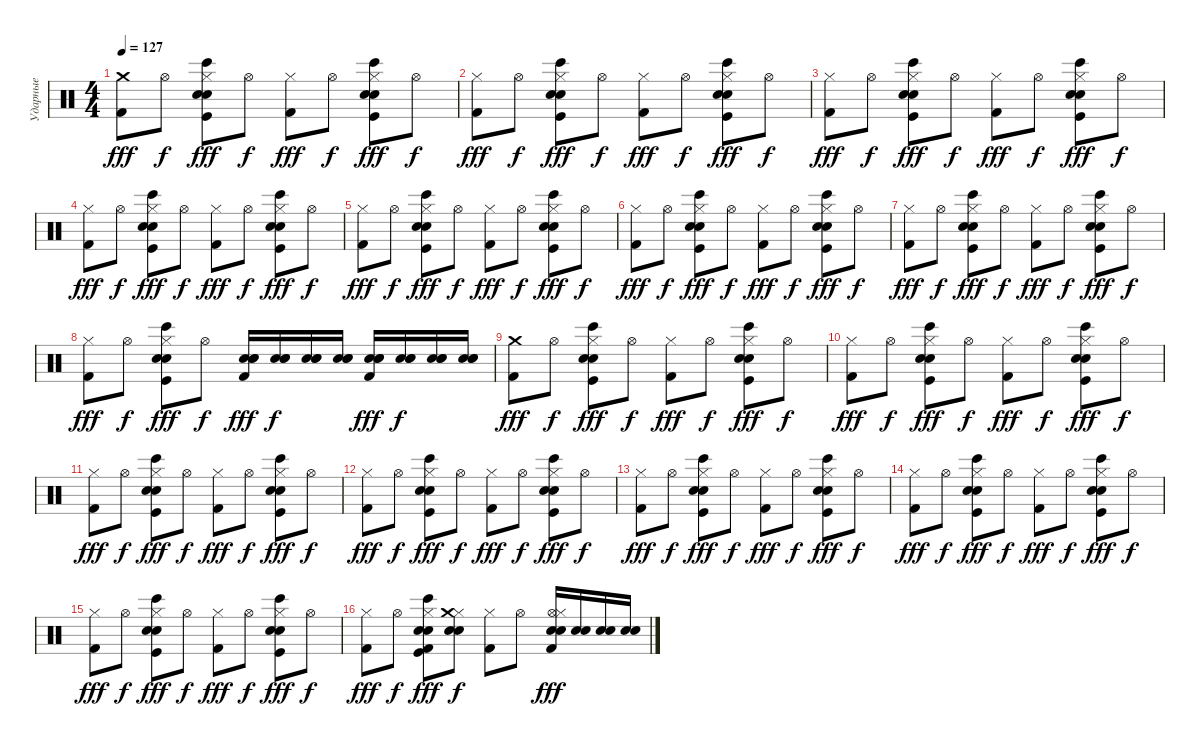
\track ("Ударные" "Ударные") {instrument percussion}
\staff {score}
\articulation defaults
\ts (4 4)
\tempo 127
\clef neutral
\ks c
("Kick (hit) 2" "Crash medium (hit)").8{dy fff} "Hi-Hat (open)".8{dy f} ("Hi-Hat (closed)" "Hand Clap (hit)" "Kick (hit)" "Snare (hit) 2" "Bongo High (hit)").8{dy fff} "Hi-Hat (open)".8{dy f} ("Kick (hit) 2" "Hi-Hat (closed)").8{dy fff} "Hi-Hat (open)".8{dy f} ("Hi-Hat (closed)" "Hand Clap (hit)" "Kick (hit)" "Snare (hit) 2" "Bongo High (hit)").8{dy fff} "Hi-Hat (open)".8{dy f} |
("Kick (hit) 2" "Hi-Hat (closed)").8{dy fff} "Hi-Hat (open)".8{dy f} ("Hi-Hat (closed)" "Hand Clap (hit)" "Kick (hit)" "Snare (hit) 2" "Bongo High (hit)").8{dy fff} "Hi-Hat (open)".8{dy f} ("Kick (hit) 2" "Hi-Hat (closed)").8{dy fff} "Hi-Hat (open)".8{dy f} ("Hi-Hat (closed)" "Hand Clap (hit)" "Kick (hit)" "Snare (hit) 2" "Bongo High (hit)").8{dy fff} "Hi-Hat (open)".8{dy f} |
("Kick (hit) 2" "Hi-Hat (closed)").8{dy fff} "Hi-Hat (open)".8{dy f} ("Hi-Hat (closed)" "Hand Clap (hit)" "Kick (hit)" "Snare (hit) 2" "Bongo High (hit)").8{dy fff} "Hi-Hat (open)".8{dy f} ("Kick (hit) 2" "Hi-Hat (closed)").8{dy fff} "Hi-Hat (open)".8{dy f} ("Hi-Hat (closed)" "Hand Clap (hit)" "Kick (hit)" "Snare (hit) 2" "Bongo High (hit)").8{dy fff} "Hi-Hat (open)".8{dy f} |
("Kick (hit) 2" "Hi-Hat (closed)").8{dy fff} "Hi-Hat (open)".8{dy f} ("Hi-Hat (closed)" "Hand Clap (hit)" "Kick (hit)" "Snare (hit) 2" "Bongo High (hit)").8{dy fff} "Hi-Hat (open)".8{dy f} ("Kick (hit) 2" "Hi-Hat (closed)").8{dy fff} "Hi-Hat (open)".8{dy f} ("Hi-Hat (closed)" "Hand Clap (hit)" "Kick (hit)" "Snare (hit) 2" "Bongo High (hit)").8{dy fff} "Hi-Hat (open)".8{dy f} |
("Kick (hit) 2" "Hi-Hat (closed)").8{dy fff} "Hi-Hat (open)".8{dy f} ("Hi-Hat (closed)" "Hand Clap (hit)" "Kick (hit)" "Snare (hit) 2" "Bongo High (hit)").8{dy fff} "Hi-Hat (open)".8{dy f} ("Kick (hit) 2" "Hi-Hat (closed)").8{dy fff} "Hi-Hat (open)".8{dy f} ("Hi-Hat (closed)" "Hand Clap (hit)" "Kick (hit)" "Snare (hit) 2" "Bongo High (hit)").8{dy fff} "Hi-Hat (open)".8{dy f} |
("Kick (hit) 2" "Hi-Hat (closed)").8{dy fff} "Hi-Hat (open)".8{dy f} ("Hi-Hat (closed)" "Hand Clap (hit)" "Kick (hit)" "Snare (hit) 2" "Bongo High (hit)").8{dy fff} "Hi-Hat (open)".8{dy f} ("Kick (hit) 2" "Hi-Hat (closed)").8{dy fff} "Hi-Hat (open)".8{dy f} ("Hi-Hat (closed)" "Hand Clap (hit)" "Kick (hit)" "Snare (hit) 2" "Bongo High (hit)").8{dy fff} "Hi-Hat (open)".8{dy f} |
("Kick (hit) 2" "Hi-Hat (closed)").8{dy fff} "Hi-Hat (open)".8{dy f} ("Hi-Hat (closed)" "Hand Clap (hit)" "Kick (hit)" "Snare (hit) 2" "Bongo High (hit)").8{dy fff} "Hi-Hat (open)".8{dy f} ("Kick (hit) 2" "Hi-Hat (closed)").8{dy fff} "Hi-Hat (open)".8{dy f} ("Hi-Hat (closed)" "Hand Clap (hit)" "Kick (hit)" "Snare (hit) 2" "Bongo High (hit)").8{dy fff} "Hi-Hat (open)".8{dy f} |
("Kick (hit) 2" "Hi-Hat (closed)").8{dy fff} "Hi-Hat (open)".8{dy f} ("Hi-Hat (closed)" "Hand Clap (hit)" "Kick (hit)" "Snare (hit) 2" "Bongo High (hit)").8{dy fff} "Hi-Hat (open)".8{dy f} ("Hand Clap (hit)" "Hand Clap (hit)" "Snare (hit) 2" "Kick (hit) 2").16{dy fff} ("Hand Clap (hit)" "Hand Clap (hit)" "Snare (hit) 2").16{dy f} ("Hand Clap (hit)" "Hand Clap (hit)" "Snare (hit) 2").16 ("Hand Clap (hit)" "Hand Clap (hit)" "Snare (hit) 2").16 ("Hand Clap (hit)" "Hand Clap (hit)" "Snare (hit) 2" "Kick (hit) 2").16{dy fff} ("Hand Clap (hit)" "Hand Clap (hit)" "Snare (hit) 2").16{dy f} ("Hand Clap (hit)" "Hand Clap (hit)" "Snare (hit) 2").16 ("Hand Clap (hit)" "Hand Clap (hit)" "Snare (hit) 2").16 |
("Kick (hit) 2" "Crash medium (hit)").8{dy fff} "Hi-Hat (open)".8{dy f} ("Hi-Hat (closed)" "Hand Clap (hit)" "Kick (hit)" "Snare (hit) 2" "Bongo High (hit)").8{dy fff} "Hi-Hat (open)".8{dy f} ("Kick (hit) 2" "Hi-Hat (closed)").8{dy fff} "Hi-Hat (open)".8{dy f} ("Hi-Hat (closed)" "Hand Clap (hit)" "Kick (hit)" "Snare (hit) 2" "Bongo High (hit)").8{dy fff} "Hi-Hat (open)".8{dy f} |
("Kick (hit) 2" "Hi-Hat (closed)").8{dy fff} "Hi-Hat (open)".8{dy f} ("Hi-Hat (closed)" "Hand Clap (hit)" "Kick (hit)" "Snare (hit) 2" "Bongo High (hit)").8{dy fff} "Hi-Hat (open)".8{dy f} ("Kick (hit) 2" "Hi-Hat (closed)").8{dy fff} "Hi-Hat (open)".8{dy f} ("Hi-Hat (closed)" "Hand Clap (hit)" "Kick (hit)" "Snare (hit) 2" "Bongo High (hit)").8{dy fff} "Hi-Hat (open)".8{dy f} |
("Kick (hit) 2" "Hi-Hat (closed)").8{dy fff} "Hi-Hat (open)".8{dy f} ("Hi-Hat (closed)" "Hand Clap (hit)" "Kick (hit)" "Snare (hit) 2" "Bongo High (hit)").8{dy fff} "Hi-Hat (open)".8{dy f} ("Kick (hit) 2" "Hi-Hat (closed)").8{dy fff} "Hi-Hat (open)".8{dy f} ("Hi-Hat (closed)" "Hand Clap (hit)" "Kick (hit)" "Snare (hit) 2" "Bongo High (hit)").8{dy fff} "Hi-Hat (open)".8{dy f} |
("Kick (hit) 2" "Hi-Hat (closed)").8{dy fff} "Hi-Hat (open)".8{dy f} ("Hi-Hat (closed)" "Hand Clap (hit)" "Kick (hit)" "Snare (hit) 2" "Bongo High (hit)").8{dy fff} "Hi-Hat (open)".8{dy f} ("Kick (hit) 2" "Hi-Hat (closed)").8{dy fff} "Hi-Hat (open)".8{dy f} ("Hi-Hat (closed)" "Hand Clap (hit)" "Kick (hit)" "Snare (hit) 2" "Bongo High (hit)").8{dy fff} "Hi-Hat (open)".8{dy f} |
("Kick (hit) 2" "Hi-Hat (closed)").8{dy fff} "Hi-Hat (open)".8{dy f} ("Hi-Hat (closed)" "Hand Clap (hit)" "Kick (hit)" "Snare (hit) 2" "Bongo High (hit)").8{dy fff} "Hi-Hat (open)".8{dy f} ("Kick (hit) 2" "Hi-Hat (closed)").8{dy fff} "Hi-Hat (open)".8{dy f} ("Hi-Hat (closed)" "Hand Clap (hit)" "Kick (hit)" "Snare (hit) 2" "Bongo High (hit)").8{dy fff} "Hi-Hat (open)".8{dy f} |
("Kick (hit) 2" "Hi-Hat (closed)").8{dy fff} "Hi-Hat (open)".8{dy f} ("Hi-Hat (closed)" "Hand Clap (hit)" "Kick (hit)" "Snare (hit) 2" "Bongo High (hit)").8{dy fff} "Hi-Hat (open)".8{dy f} ("Kick (hit) 2" "Hi-Hat (closed)").8{dy fff} "Hi-Hat (open)".8{dy f} ("Hi-Hat (closed)" "Hand Clap (hit)" "Kick (hit)" "Snare (hit) 2" "Bongo High (hit)").8{dy fff} "Hi-Hat (open)".8{dy f} |
("Kick (hit) 2" "Hi-Hat (closed)").8{dy fff} "Hi-Hat (open)".8{dy f} ("Hi-Hat (closed)" "Hand Clap (hit)" "Kick (hit)" "Snare (hit) 2" "Bongo High (hit)").8{dy fff} "Hi-Hat (open)".8{dy f} ("Kick (hit) 2" "Hi-Hat (closed)").8{dy fff} "Hi-Hat (open)".8{dy f} ("Hi-Hat (closed)" "Hand Clap (hit)" "Kick (hit)" "Snare (hit) 2" "Bongo High (hit)").8{dy fff} "Hi-Hat (open)".8{dy f} |
("Kick (hit) 2" "Hi-Hat (closed)").8{dy fff} "Hi-Hat (open)".8{dy f} ("Hi-Hat (closed)" "Hand Clap (hit)" "Kick (hit)" "Snare (hit) 2" "Bongo High (hit)" "Kick (hit) 2").8{dy fff} ("Snare (hit) 2" "Hi-Hat (closed)" "Crash medium (hit)" "Hand Clap (hit)").8{dy f} ("Kick (hit) 2" "Hi-Hat (closed)").8 "Hi-Hat (open)".8 ("Kick (hit) 2" "Hi-Hat (open)" "Hi-Hat (closed)" "Snare (hit) 2" "Hand Clap (hit)").16{dy fff} ("Snare (hit) 2" "Hand Clap (hit)").16 ("Snare (hit) 2" "Hand Clap (hit)").16 ("Snare (hit) 2" "Hand Clap (hit)").16
